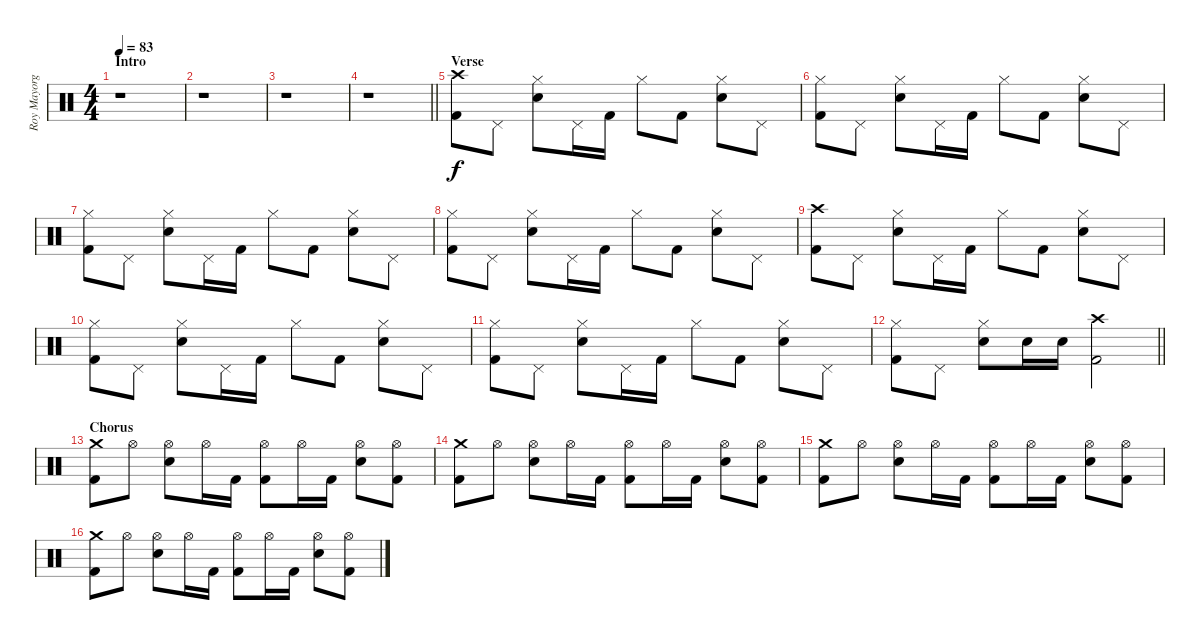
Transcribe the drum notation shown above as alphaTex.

\track ("Roy Mayorga" "Roy Mayorg") {instrument percussion}
\staff {score}
\articulation defaults
\ts (4 4)
\section ("" "Intro")
\tempo 83
\clef neutral
\ks c
r.1{dy f} |
r.1 |
r.1 |
\barLineRight lightlight
r.1 |
\section ("" "Verse ")
("Crash high (hit)" "Kick (hit) 2").8 "Pedal Hi-Hat (hit)".8 ("Hi-Hat (closed)" "Electric Snare (hit)").8 "Pedal Hi-Hat (hit)".16 "Kick (hit) 2".16 "Hi-Hat (closed)".8 "Kick (hit) 2".8 ("Electric Snare (hit)" "Hi-Hat (closed)").8 "Pedal Hi-Hat (hit)".8 |
("Hi-Hat (closed)" "Kick (hit) 2").8 "Pedal Hi-Hat (hit)".8 ("Hi-Hat (closed)" "Electric Snare (hit)").8 "Pedal Hi-Hat (hit)".16 "Kick (hit) 2".16 "Hi-Hat (closed)".8 "Kick (hit) 2".8 ("Electric Snare (hit)" "Hi-Hat (closed)").8 "Pedal Hi-Hat (hit)".8 |
("Hi-Hat (closed)" "Kick (hit) 2").8 "Pedal Hi-Hat (hit)".8 ("Hi-Hat (closed)" "Electric Snare (hit)").8 "Pedal Hi-Hat (hit)".16 "Kick (hit) 2".16 "Hi-Hat (closed)".8 "Kick (hit) 2".8 ("Electric Snare (hit)" "Hi-Hat (closed)").8 "Pedal Hi-Hat (hit)".8 |
("Hi-Hat (closed)" "Kick (hit) 2").8 "Pedal Hi-Hat (hit)".8 ("Hi-Hat (closed)" "Electric Snare (hit)").8 "Pedal Hi-Hat (hit)".16 "Kick (hit) 2".16 "Hi-Hat (closed)".8 "Kick (hit) 2".8 ("Electric Snare (hit)" "Hi-Hat (closed)").8 "Pedal Hi-Hat (hit)".8 |
("Crash high (hit)" "Kick (hit) 2").8 "Pedal Hi-Hat (hit)".8 ("Hi-Hat (closed)" "Electric Snare (hit)").8 "Pedal Hi-Hat (hit)".16 "Kick (hit) 2".16 "Hi-Hat (closed)".8 "Kick (hit) 2".8 ("Electric Snare (hit)" "Hi-Hat (closed)").8 "Pedal Hi-Hat (hit)".8 |
("Hi-Hat (closed)" "Kick (hit) 2").8 "Pedal Hi-Hat (hit)".8 ("Hi-Hat (closed)" "Electric Snare (hit)").8 "Pedal Hi-Hat (hit)".16 "Kick (hit) 2".16 "Hi-Hat (closed)".8 "Kick (hit) 2".8 ("Electric Snare (hit)" "Hi-Hat (closed)").8 "Pedal Hi-Hat (hit)".8 |
("Hi-Hat (closed)" "Kick (hit) 2").8 "Pedal Hi-Hat (hit)".8 ("Hi-Hat (closed)" "Electric Snare (hit)").8 "Pedal Hi-Hat (hit)".16 "Kick (hit) 2".16 "Hi-Hat (closed)".8 "Kick (hit) 2".8 ("Electric Snare (hit)" "Hi-Hat (closed)").8 "Pedal Hi-Hat (hit)".8 |
\barLineRight lightlight
("Hi-Hat (closed)" "Kick (hit) 2").8 "Pedal Hi-Hat (hit)".8 ("Hi-Hat (closed)" "Electric Snare (hit)").8 "Electric Snare (hit)".16 "Electric Snare (hit)".16 ("Kick (hit) 2" "Crash high (hit)").2 |
\section ("" "Chorus")
("Crash medium (hit)" "Kick (hit) 2").8 "Hi-Hat (open)".8 ("Hi-Hat (open)" "Electric Snare (hit)").8 "Hi-Hat (open)".16 "Kick (hit) 2".16 ("Kick (hit) 2" "Hi-Hat (open)").8 "Hi-Hat (open)".16 "Kick (hit) 2".16 ("Electric Snare (hit)" "Hi-Hat (open)").8 ("Hi-Hat (open)" "Kick (hit) 2").8 |
("Crash medium (hit)" "Kick (hit) 2").8 "Hi-Hat (open)".8 ("Hi-Hat (open)" "Electric Snare (hit)").8 "Hi-Hat (open)".16 "Kick (hit) 2".16 ("Kick (hit) 2" "Hi-Hat (open)").8 "Hi-Hat (open)".16 "Kick (hit) 2".16 ("Electric Snare (hit)" "Hi-Hat (open)").8 ("Hi-Hat (open)" "Kick (hit) 2").8 |
("Crash medium (hit)" "Kick (hit) 2").8 "Hi-Hat (open)".8 ("Hi-Hat (open)" "Electric Snare (hit)").8 "Hi-Hat (open)".16 "Kick (hit) 2".16 ("Kick (hit) 2" "Hi-Hat (open)").8 "Hi-Hat (open)".16 "Kick (hit) 2".16 ("Electric Snare (hit)" "Hi-Hat (open)").8 ("Hi-Hat (open)" "Kick (hit) 2").8 |
("Crash medium (hit)" "Kick (hit) 2").8 "Hi-Hat (open)".8 ("Hi-Hat (open)" "Electric Snare (hit)").8 "Hi-Hat (open)".16 "Kick (hit) 2".16 ("Kick (hit) 2" "Hi-Hat (open)").8 "Hi-Hat (open)".16 "Kick (hit) 2".16 ("Electric Snare (hit)" "Hi-Hat (open)").8 ("Hi-Hat (open)" "Kick (hit) 2").8
